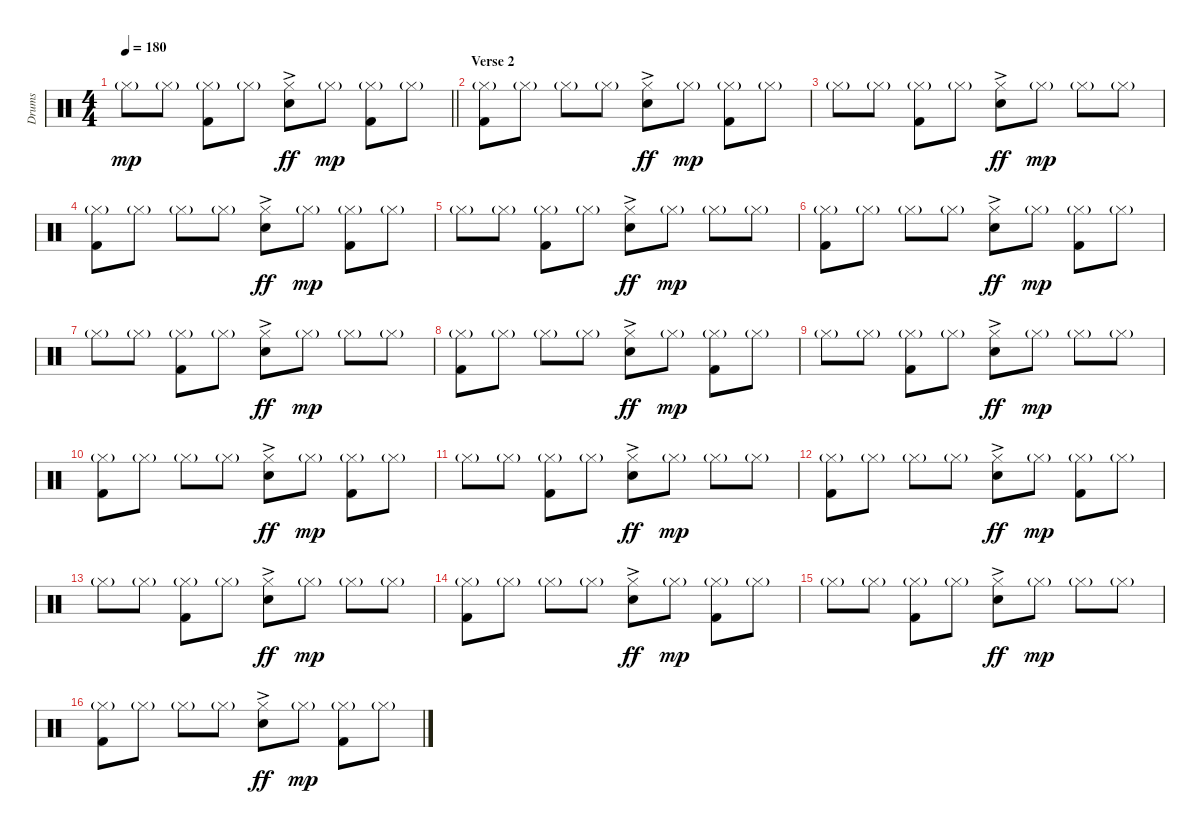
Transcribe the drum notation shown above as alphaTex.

\track ("Drums" "Drums") {instrument percussion}
\staff {score}
\articulation defaults
\ts (4 4)
\tempo 180
\clef neutral
\barLineRight lightlight
\ks c "Hi-Hat (closed)"{g}.8{dy mp} "Hi-Hat (closed)"{g}.8
("Hi-Hat (closed)"{g} "Kick (hit) 2").8 "Hi-Hat (closed)"{g}.8 ("Hi-Hat (closed)"{ac} "Snare (hit) 2"{ac}).8{dy ff} "Hi-Hat (closed)"{g}.8{dy mp} ("Hi-Hat (closed)"{g} "Kick (hit) 2").8 "Hi-Hat (closed)"{g}.8 |
\section ("" "Verse 2")
("Hi-Hat (closed)"{g} "Kick (hit) 2").8 "Hi-Hat (closed)"{g}.8 "Hi-Hat (closed)"{g}.8 "Hi-Hat (closed)"{g}.8 ("Hi-Hat (closed)"{ac} "Snare (hit) 2"{ac}).8{dy ff} "Hi-Hat (closed)"{g}.8{dy mp} ("Hi-Hat (closed)"{g} "Kick (hit) 2").8 "Hi-Hat (closed)"{g}.8 |
"Hi-Hat (closed)"{g}.8 "Hi-Hat (closed)"{g}.8 ("Hi-Hat (closed)"{g} "Kick (hit) 2").8 "Hi-Hat (closed)"{g}.8 ("Hi-Hat (closed)"{ac} "Snare (hit) 2"{ac}).8{dy ff} "Hi-Hat (closed)"{g}.8{dy mp} "Hi-Hat (closed)"{g}.8 "Hi-Hat (closed)"{g}.8 |
("Hi-Hat (closed)"{g} "Kick (hit) 2").8 "Hi-Hat (closed)"{g}.8 "Hi-Hat (closed)"{g}.8 "Hi-Hat (closed)"{g}.8 ("Hi-Hat (closed)"{ac} "Snare (hit) 2"{ac}).8{dy ff} "Hi-Hat (closed)"{g}.8{dy mp} ("Hi-Hat (closed)"{g} "Kick (hit) 2").8 "Hi-Hat (closed)"{g}.8 |
"Hi-Hat (closed)"{g}.8 "Hi-Hat (closed)"{g}.8 ("Hi-Hat (closed)"{g} "Kick (hit) 2").8 "Hi-Hat (closed)"{g}.8 ("Hi-Hat (closed)"{ac} "Snare (hit) 2"{ac}).8{dy ff} "Hi-Hat (closed)"{g}.8{dy mp} "Hi-Hat (closed)"{g}.8 "Hi-Hat (closed)"{g}.8 |
("Hi-Hat (closed)"{g} "Kick (hit) 2").8 "Hi-Hat (closed)"{g}.8 "Hi-Hat (closed)"{g}.8 "Hi-Hat (closed)"{g}.8 ("Hi-Hat (closed)"{ac} "Snare (hit) 2"{ac}).8{dy ff} "Hi-Hat (closed)"{g}.8{dy mp} ("Hi-Hat (closed)"{g} "Kick (hit) 2").8 "Hi-Hat (closed)"{g}.8 |
"Hi-Hat (closed)"{g}.8 "Hi-Hat (closed)"{g}.8 ("Hi-Hat (closed)"{g} "Kick (hit) 2").8 "Hi-Hat (closed)"{g}.8 ("Hi-Hat (closed)"{ac} "Snare (hit) 2"{ac}).8{dy ff} "Hi-Hat (closed)"{g}.8{dy mp} "Hi-Hat (closed)"{g}.8 "Hi-Hat (closed)"{g}.8 |
("Hi-Hat (closed)"{g} "Kick (hit) 2").8 "Hi-Hat (closed)"{g}.8 "Hi-Hat (closed)"{g}.8 "Hi-Hat (closed)"{g}.8 ("Hi-Hat (closed)"{ac} "Snare (hit) 2"{ac}).8{dy ff} "Hi-Hat (closed)"{g}.8{dy mp} ("Hi-Hat (closed)"{g} "Kick (hit) 2").8 "Hi-Hat (closed)"{g}.8 |
"Hi-Hat (closed)"{g}.8 "Hi-Hat (closed)"{g}.8 ("Hi-Hat (closed)"{g} "Kick (hit) 2").8 "Hi-Hat (closed)"{g}.8 ("Hi-Hat (closed)"{ac} "Snare (hit) 2"{ac}).8{dy ff} "Hi-Hat (closed)"{g}.8{dy mp} "Hi-Hat (closed)"{g}.8 "Hi-Hat (closed)"{g}.8 |
("Hi-Hat (closed)"{g} "Kick (hit) 2").8 "Hi-Hat (closed)"{g}.8 "Hi-Hat (closed)"{g}.8 "Hi-Hat (closed)"{g}.8 ("Hi-Hat (closed)"{ac} "Snare (hit) 2"{ac}).8{dy ff} "Hi-Hat (closed)"{g}.8{dy mp} ("Hi-Hat (closed)"{g} "Kick (hit) 2").8 "Hi-Hat (closed)"{g}.8 |
"Hi-Hat (closed)"{g}.8 "Hi-Hat (closed)"{g}.8 ("Hi-Hat (closed)"{g} "Kick (hit) 2").8 "Hi-Hat (closed)"{g}.8 ("Hi-Hat (closed)"{ac} "Snare (hit) 2"{ac}).8{dy ff} "Hi-Hat (closed)"{g}.8{dy mp} "Hi-Hat (closed)"{g}.8 "Hi-Hat (closed)"{g}.8 |
("Hi-Hat (closed)"{g} "Kick (hit) 2").8 "Hi-Hat (closed)"{g}.8 "Hi-Hat (closed)"{g}.8 "Hi-Hat (closed)"{g}.8 ("Hi-Hat (closed)"{ac} "Snare (hit) 2"{ac}).8{dy ff} "Hi-Hat (closed)"{g}.8{dy mp} ("Hi-Hat (closed)"{g} "Kick (hit) 2").8 "Hi-Hat (closed)"{g}.8 |
"Hi-Hat (closed)"{g}.8 "Hi-Hat (closed)"{g}.8 ("Hi-Hat (closed)"{g} "Kick (hit) 2").8 "Hi-Hat (closed)"{g}.8 ("Hi-Hat (closed)"{ac} "Snare (hit) 2"{ac}).8{dy ff} "Hi-Hat (closed)"{g}.8{dy mp} "Hi-Hat (closed)"{g}.8 "Hi-Hat (closed)"{g}.8 |
("Hi-Hat (closed)"{g} "Kick (hit) 2").8 "Hi-Hat (closed)"{g}.8 "Hi-Hat (closed)"{g}.8 "Hi-Hat (closed)"{g}.8 ("Hi-Hat (closed)"{ac} "Snare (hit) 2"{ac}).8{dy ff} "Hi-Hat (closed)"{g}.8{dy mp} ("Hi-Hat (closed)"{g} "Kick (hit) 2").8 "Hi-Hat (closed)"{g}.8 |
"Hi-Hat (closed)"{g}.8 "Hi-Hat (closed)"{g}.8 ("Hi-Hat (closed)"{g} "Kick (hit) 2").8 "Hi-Hat (closed)"{g}.8 ("Hi-Hat (closed)"{ac} "Snare (hit) 2"{ac}).8{dy ff} "Hi-Hat (closed)"{g}.8{dy mp} "Hi-Hat (closed)"{g}.8 "Hi-Hat (closed)"{g}.8 |
("Hi-Hat (closed)"{g} "Kick (hit) 2").8 "Hi-Hat (closed)"{g}.8 "Hi-Hat (closed)"{g}.8 "Hi-Hat (closed)"{g}.8 ("Hi-Hat (closed)"{ac} "Snare (hit) 2"{ac}).8{dy ff} "Hi-Hat (closed)"{g}.8{dy mp} ("Hi-Hat (closed)"{g} "Kick (hit) 2").8 "Hi-Hat (closed)"{g}.8
